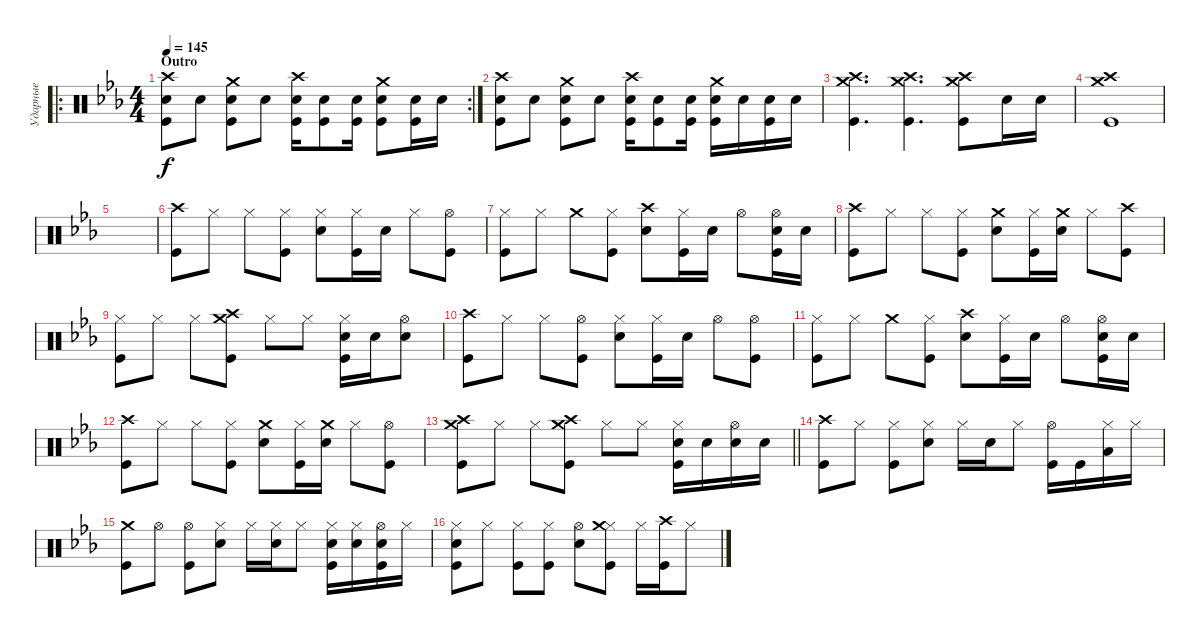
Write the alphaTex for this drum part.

\track ("Ударные" "Ударные") {instrument percussion}
\staff {score}
\articulation defaults
\ro
\rc 2
\ts (4 4)
\section ("" "Outro")
\tempo 145
\clef neutral
\ks cminor
("Crash high (hit)" "Snare (hit) 2" "Kick (hit)").8{dy f} "Snare (hit) 2".8 ("Crash medium (hit)" "Snare (hit) 2" "Kick (hit)").8 "Snare (hit) 2".8 ("Crash high (hit)" "Snare (hit) 2" "Kick (hit)").16 ("Snare (hit) 2" "Kick (hit)").8 ("Snare (hit) 2" "Kick (hit)").16 ("Crash medium (hit)" "Snare (hit) 2" "Kick (hit)").8 ("Snare (hit) 2" "Kick (hit)").16 "Snare (hit) 2".16 |
("Crash high (hit)" "Snare (hit) 2" "Kick (hit)").8 "Snare (hit) 2".8 ("Crash medium (hit)" "Snare (hit) 2" "Kick (hit)").8 "Snare (hit) 2".8 ("Crash high (hit)" "Snare (hit) 2" "Kick (hit)").16 ("Snare (hit) 2" "Kick (hit)").8 ("Snare (hit) 2" "Kick (hit)").16 ("Crash medium (hit)" "Snare (hit) 2" "Kick (hit)").16 "Snare (hit) 2".16 ("Snare (hit) 2" "Kick (hit)").16 "Snare (hit) 2".16 |
("Crash medium (hit)" "Crash high (hit)" "Kick (hit)").4{d} ("Crash medium (hit)" "Crash high (hit)" "Kick (hit)").4{d} ("Crash medium (hit)" "Crash high (hit)" "Kick (hit)").8 "Snare (hit) 2".16 "Snare (hit) 2".16 |
("Crash medium (hit)" "Crash high (hit)" "Kick (hit)").1 |
|
("Crash high (hit)" "Kick (hit)").8 "Hi-Hat (closed)".8 "Hi-Hat (closed)".8 ("Hi-Hat (closed)" "Kick (hit)").8 ("Hi-Hat (closed)" "Snare (hit) 2").8 ("Hi-Hat (closed)" "Kick (hit)").16 "Snare (hit) 2".16 "Hi-Hat (closed)".8 ("Hi-Hat (open)" "Kick (hit)").8 |
("Hi-Hat (closed)" "Kick (hit)").8 "Hi-Hat (closed)".8 "Crash medium (hit)".8 ("Hi-Hat (closed)" "Kick (hit)").8 ("Crash high (hit)" "Snare (hit) 2").8 ("Hi-Hat (closed)" "Kick (hit)").16 "Snare (hit) 2".16 "Hi-Hat (open)".8 ("Hi-Hat (open)" "Snare (hit) 2" "Kick (hit)").16 "Snare (hit) 2".16 |
("Crash high (hit)" "Kick (hit)").8 "Hi-Hat (closed)".8 "Hi-Hat (closed)".8 ("Hi-Hat (closed)" "Kick (hit)").8 ("Crash medium (hit)" "Snare (hit) 2").8 ("Hi-Hat (closed)" "Kick (hit)").16 ("Crash medium (hit)" "Snare (hit) 2").16 "Hi-Hat (closed)".8 ("Crash high (hit)" "Kick (hit)").8 |
("Hi-Hat (closed)" "Kick (hit)").8 "Hi-Hat (closed)".8 "Hi-Hat (closed)".8 ("Crash high (hit)" "Crash medium (hit)" "Kick (hit)").8 "Hi-Hat (closed)".8 "Hi-Hat (closed)".8 ("Hi-Hat (closed)" "Snare (hit) 2" "Kick (hit)").16 "Snare (hit) 2".16 ("Hi-Hat (open)" "Snare (hit) 2").8 |
("Crash high (hit)" "Kick (hit)").8 "Hi-Hat (closed)".8 "Hi-Hat (closed)".8 ("Hi-Hat (open)" "Kick (hit)").8 ("Hi-Hat (closed)" "Snare (hit) 2").8 ("Hi-Hat (closed)" "Kick (hit)").16 "Snare (hit) 2".16 "Hi-Hat (open)".8 ("Hi-Hat (open)" "Kick (hit)").8 |
("Hi-Hat (closed)" "Kick (hit)").8 "Hi-Hat (closed)".8 "Crash medium (hit)".8 ("Hi-Hat (closed)" "Kick (hit)").8 ("Crash high (hit)" "Snare (hit) 2").8 ("Hi-Hat (closed)" "Kick (hit)").16 "Snare (hit) 2".16 "Hi-Hat (open)".8 ("Hi-Hat (open)" "Snare (hit) 2" "Kick (hit)").16 "Snare (hit) 2".16 |
("Crash high (hit)" "Kick (hit)").8 "Hi-Hat (closed)".8 "Hi-Hat (closed)".8 ("Hi-Hat (closed)" "Kick (hit)").8 ("Crash medium (hit)" "Snare (hit) 2").8 ("Hi-Hat (closed)" "Kick (hit)").16 ("Crash medium (hit)" "Snare (hit) 2").16 "Hi-Hat (closed)".8 ("Hi-Hat (open)" "Kick (hit)").8 |
\barLineRight lightlight
("Crash high (hit)" "Crash medium (hit)" "Kick (hit)").8 "Hi-Hat (closed)".8 "Hi-Hat (closed)".8 ("Crash high (hit)" "Crash medium (hit)" "Kick (hit)").8 "Hi-Hat (closed)".8 "Hi-Hat (closed)".8 ("Hi-Hat (closed)" "Snare (hit) 2" "Kick (hit)").16 "Snare (hit) 2".16 ("Hi-Hat (open)" "Snare (hit) 2").16 "Snare (hit) 2".16 |
("Crash high (hit)" "Kick (hit)").8 "Hi-Hat (closed)".8 ("Hi-Hat (closed)" "Kick (hit)").8 ("Hi-Hat (closed)" "Snare (hit) 2").8 "Hi-Hat (closed)".16 "Snare (hit) 2".16 "Hi-Hat (closed)".8 ("Hi-Hat (open)" "Kick (hit)").16 "Kick (hit)".16 ("Hi-Hat (closed)" "Low Floor Tom (hit)").16 "Hi-Hat (closed)".16 |
("Crash medium (hit)" "Kick (hit)").8 "Hi-Hat (open)".8 ("Hi-Hat (open)" "Kick (hit)").8 ("Hi-Hat (closed)" "Snare (hit) 2").8 "Hi-Hat (closed)".16 ("Hi-Hat (closed)" "Snare (hit) 2").16 "Hi-Hat (closed)".8 ("Hi-Hat (closed)" "Snare (hit) 2" "Kick (hit)").16 ("Hi-Hat (closed)" "Snare (hit) 2").16 ("Hi-Hat (open)" "Snare (hit) 2" "Kick (hit)").16 "Hi-Hat (closed)".16 |
("Hi-Hat (closed)" "Snare (hit) 2" "Kick (hit)").8 "Hi-Hat (closed)".8 ("Hi-Hat (closed)" "Kick (hit)").8 ("Hi-Hat (closed)" "Kick (hit)").8 ("Hi-Hat (open)" "Snare (hit) 2").8 ("Hi-Hat (closed)" "Crash medium (hit)" "Kick (hit)").8 "Hi-Hat (closed)".16 ("Crash high (hit)" "Kick (hit)").16 "Hi-Hat (closed)".8
